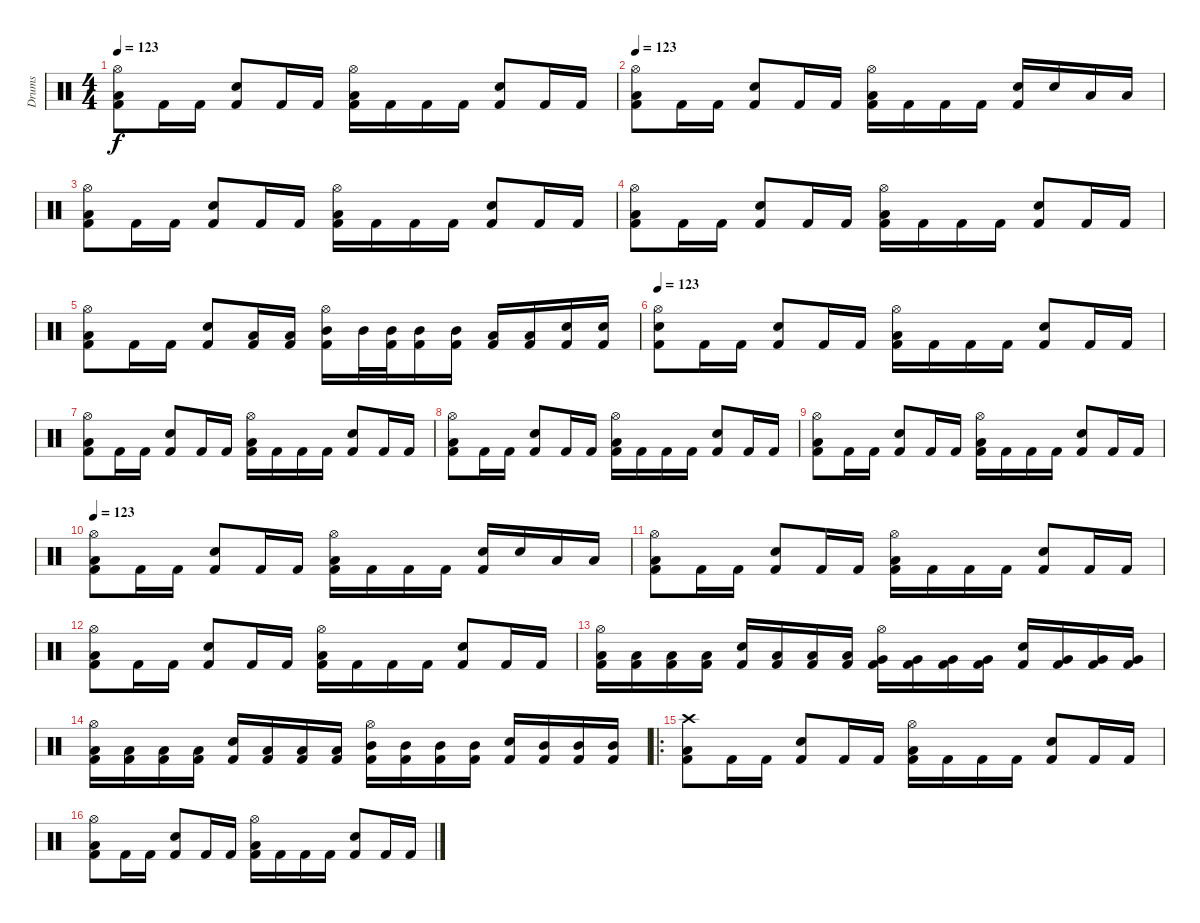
\track ("Drums" "Drums") {instrument percussion}
\staff {score}
\articulation defaults
\ts (4 4)
\tempo 123
\clef neutral
\ks c
("Hi-Hat (open)" "Low Floor Tom (hit)" "Kick (hit) 2").8{dy f} "Kick (hit) 2".16 "Kick (hit) 2".16 ("Snare (hit) 2" "Kick (hit) 2").8 "Kick (hit) 2".16 "Kick (hit) 2".16 ("Hi-Hat (open)" "Low Floor Tom (hit)" "Kick (hit) 2").16 "Kick (hit) 2".16 "Kick (hit) 2".16 "Kick (hit) 2".16 ("Snare (hit) 2" "Kick (hit) 2").8 "Kick (hit) 2".16 "Kick (hit) 2".16 |
\tempo 123
("Hi-Hat (open)" "Low Floor Tom (hit)" "Kick (hit) 2").8 "Kick (hit) 2".16 "Kick (hit) 2".16 ("Snare (hit) 2" "Kick (hit) 2").8 "Kick (hit) 2".16 "Kick (hit) 2".16 ("Hi-Hat (open)" "Low Floor Tom (hit)" "Kick (hit) 2").16 "Kick (hit) 2".16 "Kick (hit) 2".16 "Kick (hit) 2".16 ("Snare (hit) 2" "Kick (hit) 2").16 "Snare (hit) 2".16 "Low Tom (hit)".16 "Low Tom (hit)".16 |
("Hi-Hat (open)" "Low Floor Tom (hit)" "Kick (hit) 2").8 "Kick (hit) 2".16 "Kick (hit) 2".16 ("Snare (hit) 2" "Kick (hit) 2").8 "Kick (hit) 2".16 "Kick (hit) 2".16 ("Hi-Hat (open)" "Low Floor Tom (hit)" "Kick (hit) 2").16 "Kick (hit) 2".16 "Kick (hit) 2".16 "Kick (hit) 2".16 ("Snare (hit) 2" "Kick (hit) 2").8 "Kick (hit) 2".16 "Kick (hit) 2".16 |
("Hi-Hat (open)" "Low Floor Tom (hit)" "Kick (hit) 2").8 "Kick (hit) 2".16 "Kick (hit) 2".16 ("Snare (hit) 2" "Kick (hit) 2").8 "Kick (hit) 2".16 "Kick (hit) 2".16 ("Hi-Hat (open)" "Low Floor Tom (hit)" "Kick (hit) 2").16 "Kick (hit) 2".16 "Kick (hit) 2".16 "Kick (hit) 2".16 ("Snare (hit) 2" "Kick (hit) 2").8 "Kick (hit) 2".16 "Kick (hit) 2".16 |
("Hi-Hat (open)" "Low Floor Tom (hit)" "Kick (hit) 2").8 "Kick (hit) 2".16 "Kick (hit) 2".16 ("Snare (hit) 2" "Kick (hit) 2").8 ("Low Tom (hit)" "Kick (hit) 2").16 ("Low Tom (hit)" "Kick (hit) 2").16 ("Hi-Hat (open)" "Mid Tom (hit)" "Kick (hit) 2").16 "Mid Tom (hit)".32 ("Mid Tom (hit)" "Kick (hit) 2").32 ("Mid Tom (hit)" "Kick (hit) 2").16 ("Mid Tom (hit)" "Kick (hit) 2").16 ("Low Tom (hit)" "Kick (hit) 2").16 ("Low Tom (hit)" "Kick (hit) 2").16 ("Electric Snare (hit)" "Kick (hit) 2").16 ("Electric Snare (hit)" "Kick (hit) 2").16 |
\tempo 123
("Hi-Hat (open)" "Electric Snare (hit)" "Kick (hit) 2").8 "Kick (hit) 2".16 "Kick (hit) 2".16 ("Snare (hit) 2" "Kick (hit) 2").8 "Kick (hit) 2".16 "Kick (hit) 2".16 ("Hi-Hat (open)" "Low Floor Tom (hit)" "Kick (hit) 2").16 "Kick (hit) 2".16 "Kick (hit) 2".16 "Kick (hit) 2".16 ("Snare (hit) 2" "Kick (hit) 2").8 "Kick (hit) 2".16 "Kick (hit) 2".16 |
("Hi-Hat (open)" "Low Floor Tom (hit)" "Kick (hit) 2").8 "Kick (hit) 2".16 "Kick (hit) 2".16 ("Snare (hit) 2" "Kick (hit) 2").8 "Kick (hit) 2".16 "Kick (hit) 2".16 ("Hi-Hat (open)" "Low Floor Tom (hit)" "Kick (hit) 2").16 "Kick (hit) 2".16 "Kick (hit) 2".16 "Kick (hit) 2".16 ("Snare (hit) 2" "Kick (hit) 2").8 "Kick (hit) 2".16 "Kick (hit) 2".16 |
("Hi-Hat (open)" "Low Floor Tom (hit)" "Kick (hit) 2").8 "Kick (hit) 2".16 "Kick (hit) 2".16 ("Snare (hit) 2" "Kick (hit) 2").8 "Kick (hit) 2".16 "Kick (hit) 2".16 ("Hi-Hat (open)" "Low Floor Tom (hit)" "Kick (hit) 2").16 "Kick (hit) 2".16 "Kick (hit) 2".16 "Kick (hit) 2".16 ("Snare (hit) 2" "Kick (hit) 2").8 "Kick (hit) 2".16 "Kick (hit) 2".16 |
("Hi-Hat (open)" "Low Floor Tom (hit)" "Kick (hit) 2").8 "Kick (hit) 2".16 "Kick (hit) 2".16 ("Snare (hit) 2" "Kick (hit) 2").8 "Kick (hit) 2".16 "Kick (hit) 2".16 ("Hi-Hat (open)" "Low Floor Tom (hit)" "Kick (hit) 2").16 "Kick (hit) 2".16 "Kick (hit) 2".16 "Kick (hit) 2".16 ("Snare (hit) 2" "Kick (hit) 2").8 "Kick (hit) 2".16 "Kick (hit) 2".16 |
\tempo 123
("Hi-Hat (open)" "Low Floor Tom (hit)" "Kick (hit) 2").8 "Kick (hit) 2".16 "Kick (hit) 2".16 ("Snare (hit) 2" "Kick (hit) 2").8 "Kick (hit) 2".16 "Kick (hit) 2".16 ("Hi-Hat (open)" "Low Floor Tom (hit)" "Kick (hit) 2").16 "Kick (hit) 2".16 "Kick (hit) 2".16 "Kick (hit) 2".16 ("Snare (hit) 2" "Kick (hit) 2").16 "Snare (hit) 2".16 "Low Tom (hit)".16 "Low Tom (hit)".16 |
("Hi-Hat (open)" "Low Floor Tom (hit)" "Kick (hit) 2").8 "Kick (hit) 2".16 "Kick (hit) 2".16 ("Snare (hit) 2" "Kick (hit) 2").8 "Kick (hit) 2".16 "Kick (hit) 2".16 ("Hi-Hat (open)" "Low Floor Tom (hit)" "Kick (hit) 2").16 "Kick (hit) 2".16 "Kick (hit) 2".16 "Kick (hit) 2".16 ("Snare (hit) 2" "Kick (hit) 2").8 "Kick (hit) 2".16 "Kick (hit) 2".16 |
("Hi-Hat (open)" "Low Floor Tom (hit)" "Kick (hit) 2").8 "Kick (hit) 2".16 "Kick (hit) 2".16 ("Snare (hit) 2" "Kick (hit) 2").8 "Kick (hit) 2".16 "Kick (hit) 2".16 ("Hi-Hat (open)" "Low Floor Tom (hit)" "Kick (hit) 2").16 "Kick (hit) 2".16 "Kick (hit) 2".16 "Kick (hit) 2".16 ("Snare (hit) 2" "Kick (hit) 2").8 "Kick (hit) 2".16 "Kick (hit) 2".16 |
("Hi-Hat (open)" "Low Floor Tom (hit)" "Kick (hit) 2").16 ("Low Floor Tom (hit)" "Kick (hit) 2").16 ("Low Floor Tom (hit)" "Kick (hit) 2").16 ("Low Floor Tom (hit)" "Kick (hit) 2").16 ("Snare (hit) 2" "Kick (hit) 2").16 ("Low Floor Tom (hit)" "Kick (hit) 2").16 ("Low Floor Tom (hit)" "Kick (hit) 2").16 ("Low Floor Tom (hit)" "Kick (hit) 2").16 ("Hi-Hat (open)" "Very Low Tom (hit)" "Kick (hit) 2").16 ("Very Low Tom (hit)" "Kick (hit) 2").16 ("Very Low Tom (hit)" "Kick (hit) 2").16 ("Very Low Tom (hit)" "Kick (hit) 2").16 ("Snare (hit) 2" "Kick (hit) 2").16 ("Very Low Tom (hit)" "Kick (hit) 2").16 ("Very Low Tom (hit)" "Kick (hit) 2").16 ("Very Low Tom (hit)" "Kick (hit) 2").16 |
("Hi-Hat (open)" "Low Tom (hit)" "Kick (hit) 2").16 ("Low Tom (hit)" "Kick (hit) 2").16 ("Low Tom (hit)" "Kick (hit) 2").16 ("Low Tom (hit)" "Kick (hit) 2").16 ("Snare (hit) 2" "Kick (hit) 2").16 ("Low Tom (hit)" "Kick (hit) 2").16 ("Low Tom (hit)" "Kick (hit) 2").16 ("Low Tom (hit)" "Kick (hit) 2").16 ("Hi-Hat (open)" "Mid Tom (hit)" "Kick (hit) 2").16 ("Mid Tom (hit)" "Kick (hit) 2").16 ("Mid Tom (hit)" "Kick (hit) 2").16 ("Mid Tom (hit)" "Kick (hit) 2").16 ("Snare (hit) 2" "Kick (hit) 2").16 ("Mid Tom (hit)" "Kick (hit) 2").16 ("Mid Tom (hit)" "Kick (hit) 2").16 ("Mid Tom (hit)" "Kick (hit) 2").16 |
\ro
("Crash high (hit)" "Low Floor Tom (hit)" "Kick (hit) 2").8 "Kick (hit) 2".16 "Kick (hit) 2".16 ("Snare (hit) 2" "Kick (hit) 2").8 "Kick (hit) 2".16 "Kick (hit) 2".16 ("Hi-Hat (open)" "Low Floor Tom (hit)" "Kick (hit) 2").16 "Kick (hit) 2".16 "Kick (hit) 2".16 "Kick (hit) 2".16 ("Snare (hit) 2" "Kick (hit) 2").8 "Kick (hit) 2".16 "Kick (hit) 2".16 |
("Hi-Hat (open)" "Low Floor Tom (hit)" "Kick (hit) 2").8 "Kick (hit) 2".16 "Kick (hit) 2".16 ("Snare (hit) 2" "Kick (hit) 2").8 "Kick (hit) 2".16 "Kick (hit) 2".16 ("Hi-Hat (open)" "Low Floor Tom (hit)" "Kick (hit) 2").16 "Kick (hit) 2".16 "Kick (hit) 2".16 "Kick (hit) 2".16 ("Snare (hit) 2" "Kick (hit) 2").8 "Kick (hit) 2".16 "Kick (hit) 2".16
